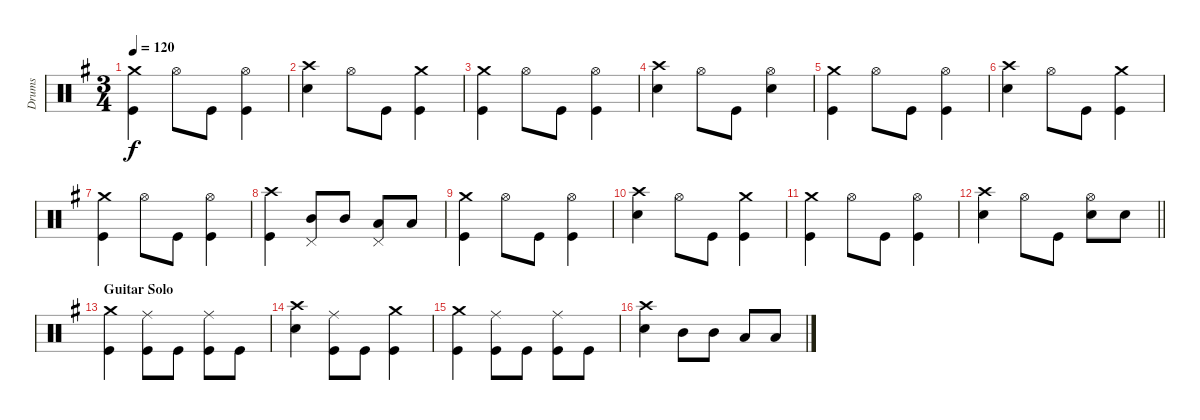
\track ("Drums" "Drums") {instrument percussion}
\staff {score}
\articulation defaults
\ts (3 4)
\tempo 120
\clef neutral
\ks g
("Crash medium (hit)" "Kick (hit)").4{dy f} "Hi-Hat (open)".8 "Kick (hit)".8 ("Hi-Hat (open)" "Kick (hit)").4 |
("Crash high (hit)" "Snare (hit) 2").4 "Hi-Hat (open)".8 "Kick (hit)".8 ("Crash medium (hit)" "Kick (hit)").4 |
("Crash medium (hit)" "Kick (hit)").4 "Hi-Hat (open)".8 "Kick (hit)".8 ("Hi-Hat (open)" "Kick (hit)").4 |
("Crash high (hit)" "Snare (hit) 2").4 "Hi-Hat (open)".8 "Kick (hit)".8 ("Hi-Hat (open)" "Snare (hit) 2").4 |
("Crash medium (hit)" "Kick (hit)").4 "Hi-Hat (open)".8 "Kick (hit)".8 ("Hi-Hat (open)" "Kick (hit)").4 |
("Crash high (hit)" "Snare (hit) 2").4 "Hi-Hat (open)".8 "Kick (hit)".8 ("Crash medium (hit)" "Kick (hit)").4 |
("Crash medium (hit)" "Kick (hit)").4 "Hi-Hat (open)".8 "Kick (hit)".8 ("Hi-Hat (open)" "Kick (hit)").4 |
("Crash high (hit)" "Kick (hit)").4 ("Pedal Hi-Hat (hit)" "Mid Tom (hit)").8 "Mid Tom (hit)".8 ("Pedal Hi-Hat (hit)" "Low Tom (hit)").8 "Low Tom (hit)".8 |
("Crash medium (hit)" "Kick (hit)").4 "Hi-Hat (open)".8 "Kick (hit)".8 ("Hi-Hat (open)" "Kick (hit)").4 |
("Crash high (hit)" "Snare (hit) 2").4 "Hi-Hat (open)".8 "Kick (hit)".8 ("Crash medium (hit)" "Kick (hit)").4 |
("Crash medium (hit)" "Kick (hit)").4 "Hi-Hat (open)".8 "Kick (hit)".8 ("Hi-Hat (open)" "Kick (hit)").4 |
\barLineRight lightlight
("Crash high (hit)" "Snare (hit) 2").4 "Hi-Hat (open)".8 "Kick (hit)".8 ("Hi-Hat (open)" "Snare (hit) 2").8 "Snare (hit) 2".8 |
\section ("" "Guitar Solo")
("Crash medium (hit)" "Kick (hit)").4 ("Ride (middle)" "Kick (hit)").8 "Kick (hit)".8 ("Ride (middle)" "Kick (hit)").8 "Kick (hit)".8 |
("Crash high (hit)" "Snare (hit) 2").4 ("Ride (middle)" "Kick (hit)").8 "Kick (hit)".8 ("Crash medium (hit)" "Kick (hit)").4 |
("Crash medium (hit)" "Kick (hit)").4 ("Ride (middle)" "Kick (hit)").8 "Kick (hit)".8 ("Ride (middle)" "Kick (hit)").8 "Kick (hit)".8 |
("Crash high (hit)" "Snare (hit) 2").4 "Mid Tom (hit)".8 "Mid Tom (hit)".8 "Low Tom (hit)".8 "Low Tom (hit)".8
